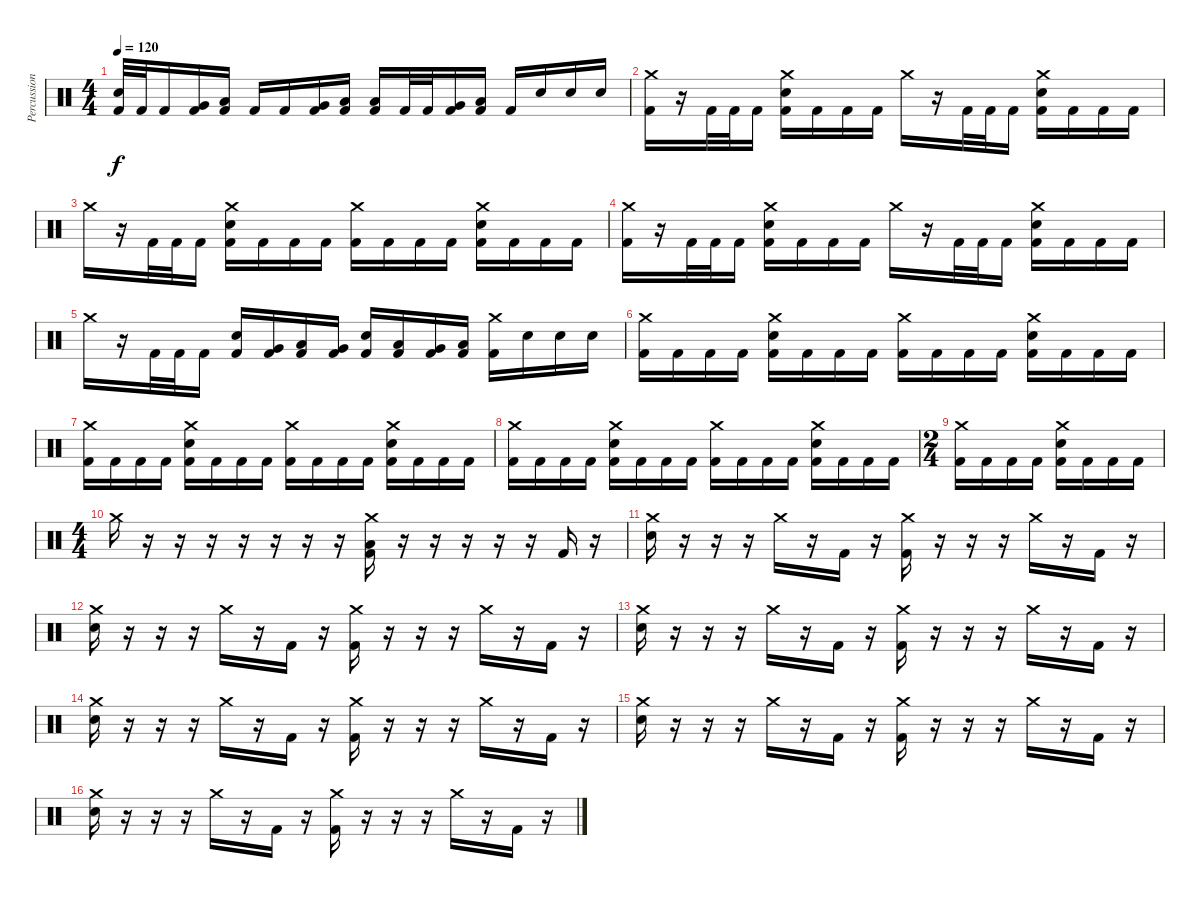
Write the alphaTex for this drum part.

\track ("Percussion" "Percussion") {instrument percussion}
\staff {score}
\articulation defaults
\ts (4 4)
\tempo 120
\clef neutral
\ks c
("Electric Snare (hit)" "Kick (hit) 2").32{dy f} "Kick (hit) 2".32 "Kick (hit) 2".16 ("Very Low Tom (hit)" "Kick (hit) 2").16 ("Low Floor Tom (hit)" "Kick (hit) 2").16 "Kick (hit) 2".16 "Kick (hit) 2".16 ("Very Low Tom (hit)" "Kick (hit) 2").16 ("Low Tom (hit)" "Kick (hit) 2").16 ("Low Floor Tom (hit)" "Kick (hit) 2").16 "Kick (hit) 2".32 "Kick (hit) 2".32 ("Very Low Tom (hit)" "Kick (hit) 2").16 ("Low Floor Tom (hit)" "Kick (hit) 2").16 "Kick (hit) 2".16 "Electric Snare (hit)".16 "Electric Snare (hit)".16 "Electric Snare (hit)".16 |
("Crash medium (hit)" "Kick (hit) 2").16 r.16 "Kick (hit) 2".32 "Kick (hit) 2".32 "Kick (hit) 2".16 ("Crash medium (hit)" "Electric Snare (hit)" "Kick (hit) 2").16 "Kick (hit) 2".16 "Kick (hit) 2".16 "Kick (hit) 2".16 "Crash medium (hit)".16 r.16 "Kick (hit) 2".32 "Kick (hit) 2".32 "Kick (hit) 2".16 ("Crash medium (hit)" "Electric Snare (hit)" "Kick (hit) 2").16 "Kick (hit) 2".16 "Kick (hit) 2".16 "Kick (hit) 2".16 |
"Crash medium (hit)".16 r.16 "Kick (hit) 2".32 "Kick (hit) 2".32 "Kick (hit) 2".16 ("Crash medium (hit)" "Electric Snare (hit)" "Kick (hit) 2").16 "Kick (hit) 2".16 "Kick (hit) 2".16 "Kick (hit) 2".16 ("Crash medium (hit)" "Kick (hit) 2").16 "Kick (hit) 2".16 "Kick (hit) 2".16 "Kick (hit) 2".16 ("Crash medium (hit)" "Electric Snare (hit)" "Kick (hit) 2").16 "Kick (hit) 2".16 "Kick (hit) 2".16 "Kick (hit) 2".16 |
("Crash medium (hit)" "Kick (hit) 2").16 r.16 "Kick (hit) 2".32 "Kick (hit) 2".32 "Kick (hit) 2".16 ("Crash medium (hit)" "Electric Snare (hit)" "Kick (hit) 2").16 "Kick (hit) 2".16 "Kick (hit) 2".16 "Kick (hit) 2".16 "Crash medium (hit)".16 r.16 "Kick (hit) 2".32 "Kick (hit) 2".32 "Kick (hit) 2".16 ("Crash medium (hit)" "Electric Snare (hit)" "Kick (hit) 2").16 "Kick (hit) 2".16 "Kick (hit) 2".16 "Kick (hit) 2".16 |
"Crash medium (hit)".16 r.16 "Kick (hit) 2".32 "Kick (hit) 2".32 "Kick (hit) 2".16 ("Electric Snare (hit)" "Kick (hit) 2").16 ("Very Low Tom (hit)" "Kick (hit) 2").16 ("Low Floor Tom (hit)" "Kick (hit) 2").16 ("Very Low Tom (hit)" "Kick (hit) 2").16 ("Electric Snare (hit)" "Kick (hit) 2").16 ("Low Floor Tom (hit)" "Kick (hit) 2").16 ("Very Low Tom (hit)" "Kick (hit) 2").16 ("Low Floor Tom (hit)" "Kick (hit) 2").16 ("Crash medium (hit)" "Kick (hit) 2").16 "Electric Snare (hit)".16 "Electric Snare (hit)".16 "Electric Snare (hit)".16 |
("Crash medium (hit)" "Kick (hit) 2").16 "Kick (hit) 2".16 "Kick (hit) 2".16 "Kick (hit) 2".16 ("Crash medium (hit)" "Electric Snare (hit)" "Kick (hit) 2").16 "Kick (hit) 2".16 "Kick (hit) 2".16 "Kick (hit) 2".16 ("Crash medium (hit)" "Kick (hit) 2").16 "Kick (hit) 2".16 "Kick (hit) 2".16 "Kick (hit) 2".16 ("Crash medium (hit)" "Electric Snare (hit)" "Kick (hit) 2").16 "Kick (hit) 2".16 "Kick (hit) 2".16 "Kick (hit) 2".16 |
("Crash medium (hit)" "Kick (hit) 2").16 "Kick (hit) 2".16 "Kick (hit) 2".16 "Kick (hit) 2".16 ("Crash medium (hit)" "Electric Snare (hit)" "Kick (hit) 2").16 "Kick (hit) 2".16 "Kick (hit) 2".16 "Kick (hit) 2".16 ("Crash medium (hit)" "Kick (hit) 2").16 "Kick (hit) 2".16 "Kick (hit) 2".16 "Kick (hit) 2".16 ("Crash medium (hit)" "Electric Snare (hit)" "Kick (hit) 2").16 "Kick (hit) 2".16 "Kick (hit) 2".16 "Kick (hit) 2".16 |
("Crash medium (hit)" "Kick (hit) 2").16 "Kick (hit) 2".16 "Kick (hit) 2".16 "Kick (hit) 2".16 ("Crash medium (hit)" "Electric Snare (hit)" "Kick (hit) 2").16 "Kick (hit) 2".16 "Kick (hit) 2".16 "Kick (hit) 2".16 ("Crash medium (hit)" "Kick (hit) 2").16 "Kick (hit) 2".16 "Kick (hit) 2".16 "Kick (hit) 2".16 ("Crash medium (hit)" "Electric Snare (hit)" "Kick (hit) 2").16 "Kick (hit) 2".16 "Kick (hit) 2".16 "Kick (hit) 2".16 |
\ts (2 4)
("Crash medium (hit)" "Kick (hit) 2").16 "Kick (hit) 2".16 "Kick (hit) 2".16 "Kick (hit) 2".16 ("Crash medium (hit)" "Electric Snare (hit)" "Kick (hit) 2").16 "Kick (hit) 2".16 "Kick (hit) 2".16 "Kick (hit) 2".16 |
\ts (4 4)
"Crash medium (hit)".16 r.16 r.16 r.16 r.16 r.16 r.16 r.16 ("Crash medium (hit)" "Low Floor Tom (hit)" "Kick (hit) 2").16 r.16 r.16 r.16 r.16 r.16 "Kick (hit) 2".16 r.16 |
("Crash medium (hit)" "Electric Snare (hit)").16 r.16 r.16 r.16 "Crash medium (hit)".16 r.16 "Kick (hit) 2".16 r.16 ("Crash medium (hit)" "Kick (hit) 2").16 r.16 r.16 r.16 "Crash medium (hit)".16 r.16 "Kick (hit) 2".16 r.16 |
("Crash medium (hit)" "Electric Snare (hit)").16 r.16 r.16 r.16 "Crash medium (hit)".16 r.16 "Kick (hit) 2".16 r.16 ("Crash medium (hit)" "Kick (hit) 2").16 r.16 r.16 r.16 "Crash medium (hit)".16 r.16 "Kick (hit) 2".16 r.16 |
("Crash medium (hit)" "Electric Snare (hit)").16 r.16 r.16 r.16 "Crash medium (hit)".16 r.16 "Kick (hit) 2".16 r.16 ("Crash medium (hit)" "Kick (hit) 2").16 r.16 r.16 r.16 "Crash medium (hit)".16 r.16 "Kick (hit) 2".16 r.16 |
("Crash medium (hit)" "Electric Snare (hit)").16 r.16 r.16 r.16 "Crash medium (hit)".16 r.16 "Kick (hit) 2".16 r.16 ("Crash medium (hit)" "Kick (hit) 2").16 r.16 r.16 r.16 "Crash medium (hit)".16 r.16 "Kick (hit) 2".16 r.16 |
("Crash medium (hit)" "Electric Snare (hit)").16 r.16 r.16 r.16 "Crash medium (hit)".16 r.16 "Kick (hit) 2".16 r.16 ("Crash medium (hit)" "Kick (hit) 2").16 r.16 r.16 r.16 "Crash medium (hit)".16 r.16 "Kick (hit) 2".16 r.16 |
("Crash medium (hit)" "Electric Snare (hit)").16 r.16 r.16 r.16 "Crash medium (hit)".16 r.16 "Kick (hit) 2".16 r.16 ("Crash medium (hit)" "Kick (hit) 2").16 r.16 r.16 r.16 "Crash medium (hit)".16 r.16 "Kick (hit) 2".16 r.16
